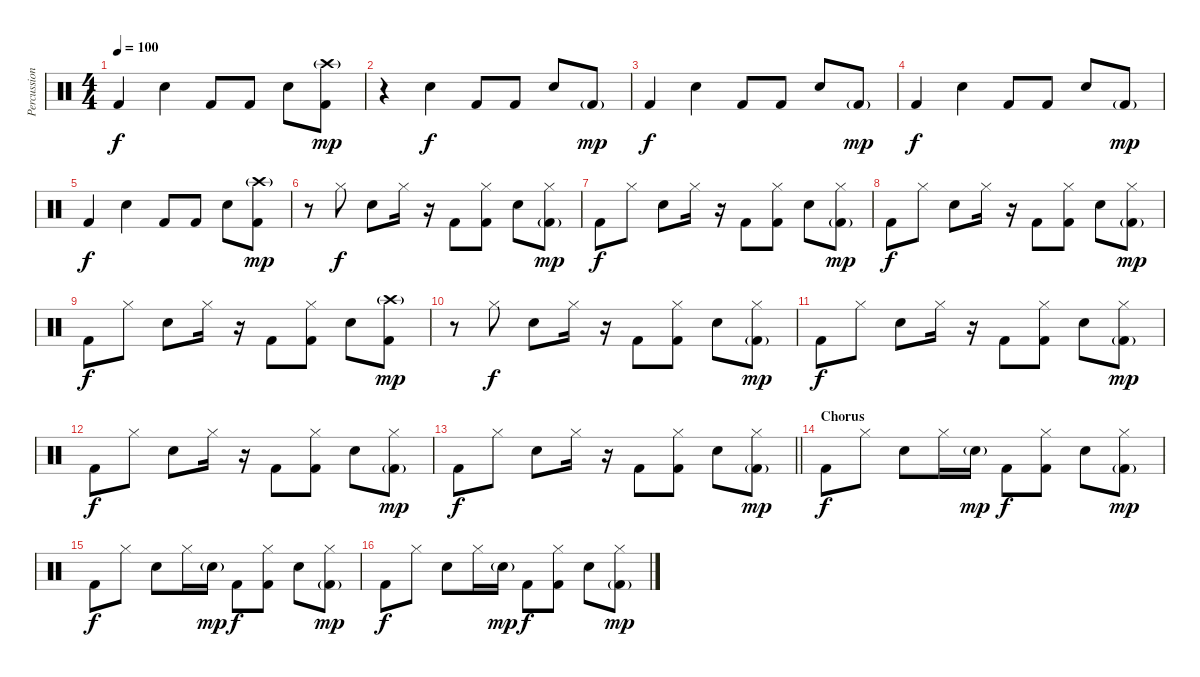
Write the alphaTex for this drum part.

\track ("Percussion" "Percussion") {instrument percussion}
\staff {score}
\articulation defaults
\ts (4 4)
\tempo 100
\clef neutral
\ks c "Kick (hit) 2".4{dy f} "Snare (hit) 2".4 "Kick (hit) 2".8 "Kick (hit) 2".8 "Snare (hit) 2".8
("Crash high (hit)"{g} "Kick (hit) 2").8{dy mp} |
r.4 "Snare (hit) 2".4{dy f} "Kick (hit) 2".8 "Kick (hit) 2".8 "Snare (hit) 2".8 "Kick (hit) 2"{g}.8{dy mp} |
"Kick (hit) 2".4{dy f} "Snare (hit) 2".4 "Kick (hit) 2".8 "Kick (hit) 2".8 "Snare (hit) 2".8 "Kick (hit) 2"{g}.8{dy mp} |
"Kick (hit) 2".4{dy f} "Snare (hit) 2".4 "Kick (hit) 2".8 "Kick (hit) 2".8 "Snare (hit) 2".8 "Kick (hit) 2"{g}.8{dy mp} |
"Kick (hit) 2".4{dy f} "Snare (hit) 2".4 "Kick (hit) 2".8 "Kick (hit) 2".8 "Snare (hit) 2".8 ("Crash high (hit)"{g} "Kick (hit) 2").8{dy mp} |
r.8 "Hi-Hat (closed)".8{dy f} "Snare (hit) 2".8 "Hi-Hat (closed)".16 r.16 "Kick (hit) 2".8 ("Hi-Hat (closed)" "Kick (hit) 2").8 "Snare (hit) 2".8 ("Hi-Hat (closed)" "Kick (hit) 2"{g}).8{dy mp} |
"Kick (hit) 2".8{dy f} "Hi-Hat (closed)".8 "Snare (hit) 2".8 "Hi-Hat (closed)".16 r.16 "Kick (hit) 2".8 ("Hi-Hat (closed)" "Kick (hit) 2").8 "Snare (hit) 2".8 ("Hi-Hat (closed)" "Kick (hit) 2"{g}).8{dy mp} |
"Kick (hit) 2".8{dy f} "Hi-Hat (closed)".8 "Snare (hit) 2".8 "Hi-Hat (closed)".16 r.16 "Kick (hit) 2".8 ("Hi-Hat (closed)" "Kick (hit) 2").8 "Snare (hit) 2".8 ("Hi-Hat (closed)" "Kick (hit) 2"{g}).8{dy mp} |
"Kick (hit) 2".8{dy f} "Hi-Hat (closed)".8 "Snare (hit) 2".8 "Hi-Hat (closed)".16 r.16 "Kick (hit) 2".8 ("Hi-Hat (closed)" "Kick (hit) 2").8 "Snare (hit) 2".8 ("Crash high (hit)"{g} "Kick (hit) 2").8{dy mp} |
r.8 "Hi-Hat (closed)".8{dy f} "Snare (hit) 2".8 "Hi-Hat (closed)".16 r.16 "Kick (hit) 2".8 ("Hi-Hat (closed)" "Kick (hit) 2").8 "Snare (hit) 2".8 ("Hi-Hat (closed)" "Kick (hit) 2"{g}).8{dy mp} |
"Kick (hit) 2".8{dy f} "Hi-Hat (closed)".8 "Snare (hit) 2".8 "Hi-Hat (closed)".16 r.16 "Kick (hit) 2".8 ("Hi-Hat (closed)" "Kick (hit) 2").8 "Snare (hit) 2".8 ("Hi-Hat (closed)" "Kick (hit) 2"{g}).8{dy mp} |
"Kick (hit) 2".8{dy f} "Hi-Hat (closed)".8 "Snare (hit) 2".8 "Hi-Hat (closed)".16 r.16 "Kick (hit) 2".8 ("Hi-Hat (closed)" "Kick (hit) 2").8 "Snare (hit) 2".8 ("Hi-Hat (closed)" "Kick (hit) 2"{g}).8{dy mp} |
\barLineRight lightlight "Kick (hit) 2".8{dy f} "Hi-Hat (closed)".8 "Snare (hit) 2".8 "Hi-Hat (closed)".16
r.16 "Kick (hit) 2".8 ("Hi-Hat (closed)" "Kick (hit) 2").8 "Snare (hit) 2".8 ("Hi-Hat (closed)" "Kick (hit) 2"{g}).8{dy mp} |
\section ("" "Chorus")
"Kick (hit) 2".8{dy f} "Hi-Hat (closed)".8 "Snare (hit) 2".8 "Hi-Hat (closed)".16 "Snare (hit) 2"{g}.16{dy mp} "Kick (hit) 2".8{dy f} ("Hi-Hat (closed)" "Kick (hit) 2").8 "Snare (hit) 2".8 ("Hi-Hat (closed)" "Kick (hit) 2"{g}).8{dy mp} |
"Kick (hit) 2".8{dy f} "Hi-Hat (closed)".8 "Snare (hit) 2".8 "Hi-Hat (closed)".16 "Snare (hit) 2"{g}.16{dy mp} "Kick (hit) 2".8{dy f} ("Hi-Hat (closed)" "Kick (hit) 2").8 "Snare (hit) 2".8 ("Hi-Hat (closed)" "Kick (hit) 2"{g}).8{dy mp} |
"Kick (hit) 2".8{dy f} "Hi-Hat (closed)".8 "Snare (hit) 2".8 "Hi-Hat (closed)".16 "Snare (hit) 2"{g}.16{dy mp} "Kick (hit) 2".8{dy f} ("Hi-Hat (closed)" "Kick (hit) 2").8 "Snare (hit) 2".8 ("Hi-Hat (closed)" "Kick (hit) 2"{g}).8{dy mp}
